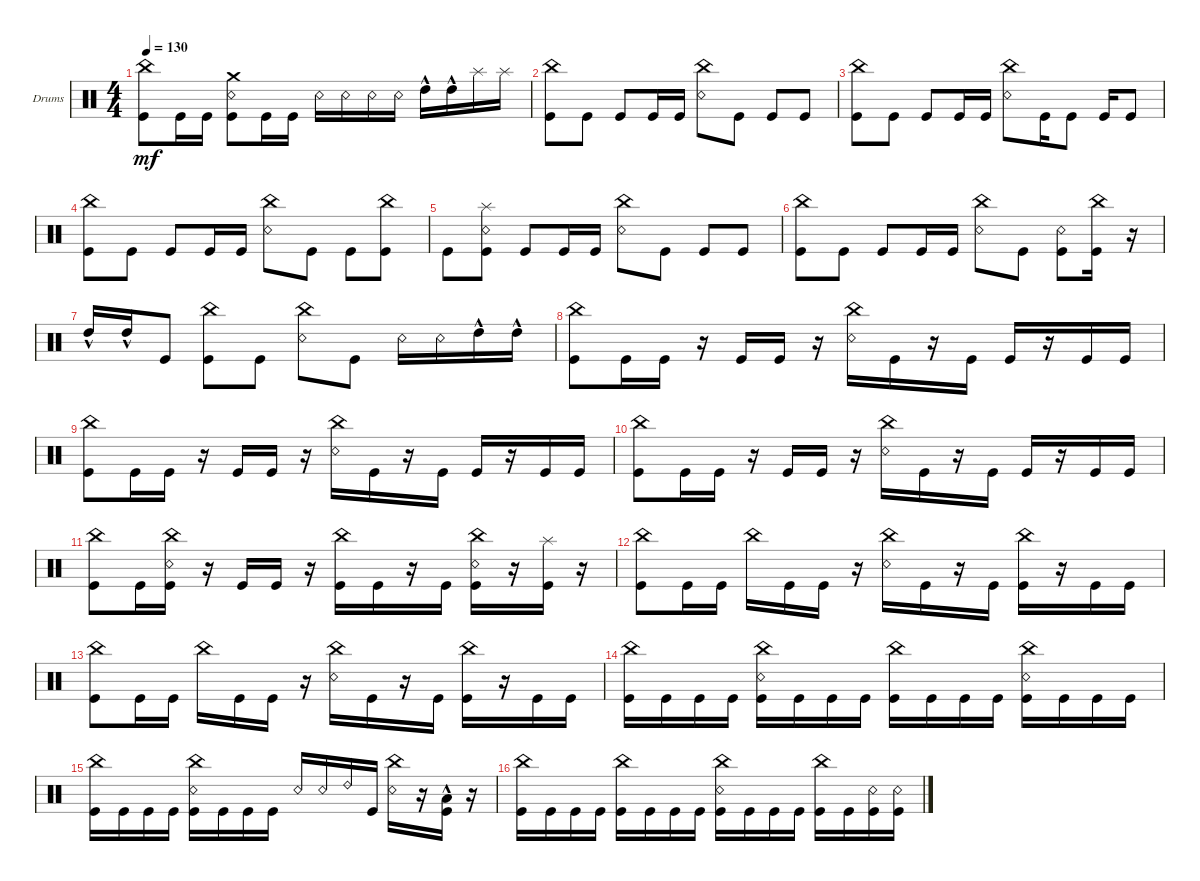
\defaultSystemsLayout 4
\bracketExtendMode groupsimilarinstruments
\firstSystemTrackNameOrientation horizontal
\otherSystemsTrackNameOrientation horizontal
\track ("Drumkit" "Drums") {instrument percussion}
\staff {score}
\articulation defaults
\ts (4 4)
\tempo 130
\clef neutral
\ks c
("China (hit)" "Kick (hit)").8{dy mf} "Kick (hit)".16 "Kick (hit)".16 ("Kick (hit)" "Snare (rim shot)" "Crash medium (hit)").8 "Kick (hit)".16 "Kick (hit)".16 "Snare (rim shot)".16 "Snare (rim shot)".16 "Snare (rim shot)".16 "Snare (rim shot)".16 "High Tom (hit)"{hac}.16 "High Tom (hit)"{hac}.16 "Splash (hit)".16 "Splash (hit)".16 |
("China (hit)" "Kick (hit)").8 "Kick (hit)".8 "Kick (hit)".8 "Kick (hit)".16 "Kick (hit)".16 ("Snare (rim shot)" "China (hit)").8 "Kick (hit)".8 "Kick (hit)".8 "Kick (hit)".8 |
("China (hit)" "Kick (hit)").8 "Kick (hit)".8 "Kick (hit)".8 "Kick (hit)".16 "Kick (hit)".16 ("Snare (rim shot)" "China (hit)").8 "Kick (hit)".16 "Kick (hit)".8 "Kick (hit)".16 "Kick (hit)".8 |
("China (hit)" "Kick (hit)").8 "Kick (hit)".8 "Kick (hit)".8 "Kick (hit)".16 "Kick (hit)".16 ("Snare (rim shot)" "China (hit)").8 "Kick (hit)".8 "Kick (hit)".8 ("Kick (hit)" "China (hit)").8 |
"Kick (hit)".8 ("Kick (hit)" "Snare (rim shot)" "Splash (hit)").8 "Kick (hit)".8 "Kick (hit)".16 "Kick (hit)".16 ("Snare (rim shot)" "China (hit)").8 "Kick (hit)".8 "Kick (hit)".8 "Kick (hit)".8 |
("China (hit)" "Kick (hit)").8 "Kick (hit)".8 "Kick (hit)".8 "Kick (hit)".16 "Kick (hit)".16 ("Snare (rim shot)" "China (hit)").8 "Kick (hit)".8 ("Kick (hit)" "Snare (rim shot)").8 ("Kick (hit)" "China (hit)").16 r.16 |
"High Tom (hit)"{hac}.16 "High Tom (hit)"{hac}.16 "Kick (hit)".8 ("Kick (hit)" "China (hit)").8 "Kick (hit)".8 ("Snare (rim shot)" "China (hit)").8 "Kick (hit)".8 "Snare (rim shot)".16 "Snare (rim shot)".16 "High Tom (hit)"{hac}.16 "High Tom (hit)"{hac}.16 |
("China (hit)" "Kick (hit)").8 "Kick (hit)".16 "Kick (hit)".16 r.16 "Kick (hit)".16 "Kick (hit)".16 r.16 ("Snare (rim shot)" "China (hit)").16 "Kick (hit)".16 r.16 "Kick (hit)".16 "Kick (hit)".16 r.16 "Kick (hit)".16 "Kick (hit)".16 |
("China (hit)" "Kick (hit)").8 "Kick (hit)".16 "Kick (hit)".16 r.16 "Kick (hit)".16 "Kick (hit)".16 r.16 ("Snare (rim shot)" "China (hit)").16 "Kick (hit)".16 r.16 "Kick (hit)".16 "Kick (hit)".16 r.16 "Kick (hit)".16 "Kick (hit)".16 |
("China (hit)" "Kick (hit)").8 "Kick (hit)".16 "Kick (hit)".16 r.16 "Kick (hit)".16 "Kick (hit)".16 r.16 ("Snare (rim shot)" "China (hit)").16 "Kick (hit)".16 r.16 "Kick (hit)".16 "Kick (hit)".16 r.16 "Kick (hit)".16 "Kick (hit)".16 |
("China (hit)" "Kick (hit)").8 "Kick (hit)".16 ("Kick (hit)" "Snare (rim shot)" "China (hit)").16 r.16 "Kick (hit)".16 "Kick (hit)".16 r.16 ("China (hit)" "Kick (hit)").16 "Kick (hit)".16 r.16 "Kick (hit)".16 ("Kick (hit)" "Snare (rim shot)" "China (hit)").16 r.16 ("Kick (hit)" "Splash (hit)").16 r.16 |
("China (hit)" "Kick (hit)").8 "Kick (hit)".16 "Kick (hit)".16 "China (hit)".16 "Kick (hit)".16 "Kick (hit)".16 r.16 ("Snare (rim shot)" "China (hit)").16 "Kick (hit)".16 r.16 "Kick (hit)".16 ("Kick (hit)" "China (hit)").16 r.16 "Kick (hit)".16 "Kick (hit)".16 |
("China (hit)" "Kick (hit)").8 "Kick (hit)".16 "Kick (hit)".16 "China (hit)".16 "Kick (hit)".16 "Kick (hit)".16 r.16 ("Snare (rim shot)" "China (hit)").16 "Kick (hit)".16 r.16 "Kick (hit)".16 ("Kick (hit)" "China (hit)").16 r.16 "Kick (hit)".16 "Kick (hit)".16 |
("Kick (hit)" "China (hit)").16 "Kick (hit)".16 "Kick (hit)".16 "Kick (hit)".16 ("Kick (hit)" "Snare (rim shot)" "China (hit)").16 "Kick (hit)".16 "Kick (hit)".16 "Kick (hit)".16 ("Kick (hit)" "China (hit)").16 "Kick (hit)".16 "Kick (hit)".16 "Kick (hit)".16 ("Kick (hit)" "China (hit)" "Snare (rim shot)").16 "Kick (hit)".16 "Kick (hit)".16 "Kick (hit)".16 |
("Kick (hit)" "China (hit)").16 "Kick (hit)".16 "Kick (hit)".16 "Kick (hit)".16 ("Kick (hit)" "Snare (rim shot)" "China (hit)").16 "Kick (hit)".16 "Kick (hit)".16 "Kick (hit)".16 "Snare (rim shot)".16 "Snare (rim shot)".16 "Ride (bell) 2".16 "Kick (hit)".16 ("China (hit)" "Snare (rim shot)").16 r.16 ("Low Tom (hit)" "Kick (hit)"{hac}).16 r.16 |
("Kick (hit)" "China (hit)").16 "Kick (hit)".16 "Kick (hit)".16 "Kick (hit)".16 ("Kick (hit)" "China (hit)").16 "Kick (hit)".16 "Kick (hit)".16 "Kick (hit)".16 ("Kick (hit)" "Snare (rim shot)" "China (hit)").16 "Kick (hit)".16 "Kick (hit)".16 "Kick (hit)".16 ("Kick (hit)" "China (hit)").16 "Kick (hit)".16 ("Snare (rim shot)" "Kick (hit)").16 ("Kick (hit)" "Snare (rim shot)").16
